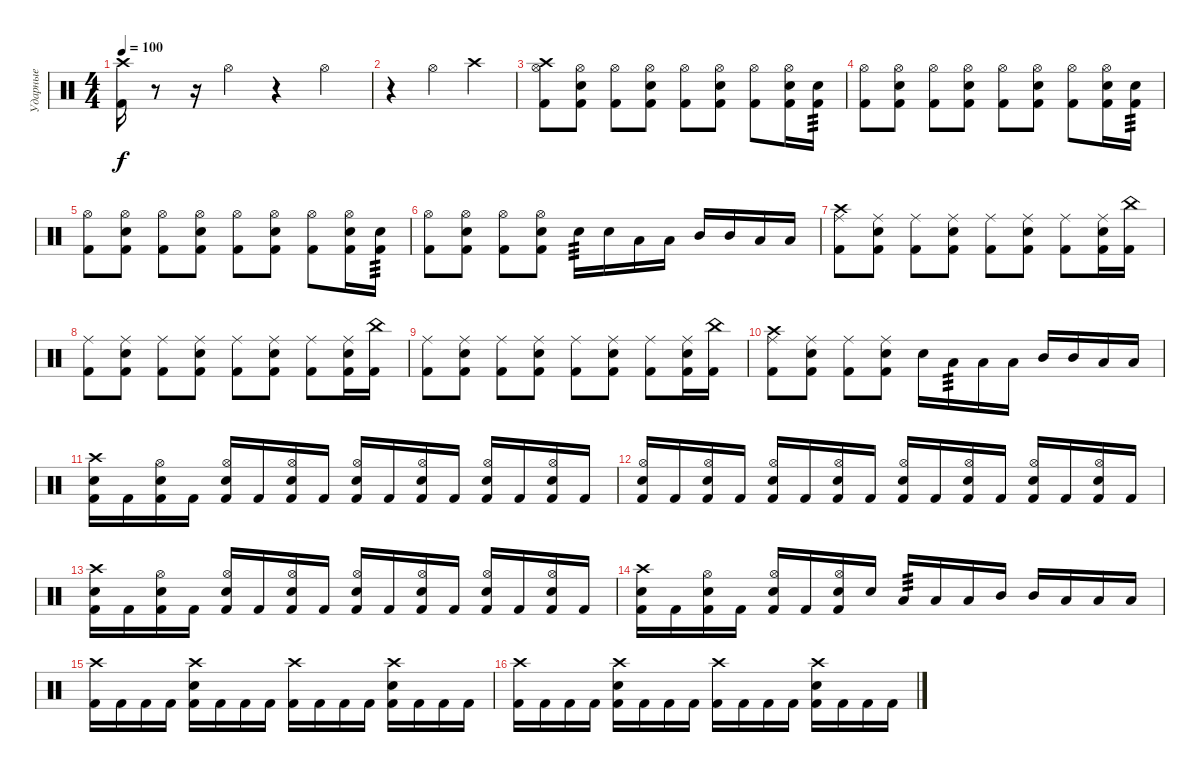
\track ("Ударные" "Ударные") {instrument percussion}
\staff {score}
\articulation defaults
\ts (4 4)
\tempo 100
\clef neutral
\ks c
("Crash high (hit)" "Kick (hit) 2").16{dy f} r.8 r.16 "Hi-Hat (open)".4 r.4 "Hi-Hat (open)".4 |
r.4 "Hi-Hat (open)".4 "Crash high (hit)".4 |
("Hi-Hat (open)" "Crash high (hit)" "Kick (hit) 2").8 ("Hi-Hat (open)" "Snare (hit) 2" "Kick (hit) 2").8 ("Hi-Hat (open)" "Kick (hit) 2").8 ("Hi-Hat (open)" "Snare (hit) 2" "Kick (hit) 2").8 ("Hi-Hat (open)" "Kick (hit) 2").8 ("Hi-Hat (open)" "Snare (hit) 2" "Kick (hit) 2").8 ("Hi-Hat (open)" "Kick (hit) 2").8 ("Hi-Hat (open)" "Snare (hit) 2" "Kick (hit) 2").16 ("Snare (hit) 2" "Kick (hit) 2").16{tp 3} |
("Hi-Hat (open)" "Kick (hit) 2").8 ("Hi-Hat (open)" "Snare (hit) 2" "Kick (hit) 2").8 ("Hi-Hat (open)" "Kick (hit) 2").8 ("Hi-Hat (open)" "Snare (hit) 2" "Kick (hit) 2").8 ("Hi-Hat (open)" "Kick (hit) 2").8 ("Hi-Hat (open)" "Snare (hit) 2" "Kick (hit) 2").8 ("Hi-Hat (open)" "Kick (hit) 2").8 ("Hi-Hat (open)" "Snare (hit) 2" "Kick (hit) 2").16 ("Snare (hit) 2" "Kick (hit) 2").16{tp 3} |
("Hi-Hat (open)" "Kick (hit) 2").8 ("Hi-Hat (open)" "Snare (hit) 2" "Kick (hit) 2").8 ("Hi-Hat (open)" "Kick (hit) 2").8 ("Hi-Hat (open)" "Snare (hit) 2" "Kick (hit) 2").8 ("Hi-Hat (open)" "Kick (hit) 2").8 ("Hi-Hat (open)" "Snare (hit) 2" "Kick (hit) 2").8 ("Hi-Hat (open)" "Kick (hit) 2").8 ("Hi-Hat (open)" "Snare (hit) 2" "Kick (hit) 2").16 ("Snare (hit) 2" "Kick (hit) 2").16{tp 3} |
("Hi-Hat (open)" "Kick (hit) 2").8 ("Hi-Hat (open)" "Snare (hit) 2" "Kick (hit) 2").8 ("Hi-Hat (open)" "Kick (hit) 2").8 ("Hi-Hat (open)" "Snare (hit) 2" "Kick (hit) 2").8 "Snare (hit) 2".16{tp 3} "Snare (hit) 2".16 "Low Tom (hit)".16 "Low Tom (hit)".16 "Mid Tom (hit)".16 "Mid Tom (hit)".16 "Low Floor Tom (hit)".16 "Low Floor Tom (hit)".16 |
("Ride (middle)" "Crash high (hit)" "Kick (hit) 2").8 ("Ride (middle)" "Snare (hit) 2" "Kick (hit) 2").8 ("Ride (middle)" "Kick (hit) 2").8 ("Ride (middle)" "Snare (hit) 2" "Kick (hit) 2").8 ("Ride (middle)" "Kick (hit) 2").8 ("Ride (middle)" "Snare (hit) 2" "Kick (hit) 2").8 ("Ride (middle)" "Kick (hit) 2").8 ("Ride (middle)" "Snare (hit) 2" "Kick (hit) 2").16 ("China (hit)" "Kick (hit) 2").16 |
("Ride (middle)" "Kick (hit) 2").8 ("Ride (middle)" "Snare (hit) 2" "Kick (hit) 2").8 ("Ride (middle)" "Kick (hit) 2").8 ("Ride (middle)" "Snare (hit) 2" "Kick (hit) 2").8 ("Ride (middle)" "Kick (hit) 2").8 ("Ride (middle)" "Snare (hit) 2" "Kick (hit) 2").8 ("Ride (middle)" "Kick (hit) 2").8 ("Ride (middle)" "Snare (hit) 2" "Kick (hit) 2").16 ("China (hit)" "Kick (hit) 2").16 |
("Ride (middle)" "Kick (hit) 2").8 ("Ride (middle)" "Snare (hit) 2" "Kick (hit) 2").8 ("Ride (middle)" "Kick (hit) 2").8 ("Ride (middle)" "Snare (hit) 2" "Kick (hit) 2").8 ("Ride (middle)" "Kick (hit) 2").8 ("Ride (middle)" "Snare (hit) 2" "Kick (hit) 2").8 ("Ride (middle)" "Kick (hit) 2").8 ("Ride (middle)" "Snare (hit) 2" "Kick (hit) 2").16 ("China (hit)" "Kick (hit) 2").16 |
("Ride (middle)" "Crash high (hit)" "Kick (hit) 2").8 ("Ride (middle)" "Snare (hit) 2" "Kick (hit) 2").8 ("Ride (middle)" "Kick (hit) 2").8 ("Ride (middle)" "Snare (hit) 2" "Kick (hit) 2").8 "Snare (hit) 2".16 "Low Tom (hit)".16{tp 3} "Low Tom (hit)".16 "Low Tom (hit)".16 "Mid Tom (hit)".16 "Mid Tom (hit)".16 "Low Floor Tom (hit)".16 "Low Floor Tom (hit)".16 |
("Crash high (hit)" "Snare (hit) 2" "Kick (hit) 2").16 "Kick (hit) 2".16 ("Hi-Hat (open)" "Snare (hit) 2" "Kick (hit) 2").16 "Kick (hit) 2".16 ("Hi-Hat (open)" "Snare (hit) 2" "Kick (hit) 2").16 "Kick (hit) 2".16 ("Hi-Hat (open)" "Snare (hit) 2" "Kick (hit) 2").16 "Kick (hit) 2".16 ("Hi-Hat (open)" "Snare (hit) 2" "Kick (hit) 2").16 "Kick (hit) 2".16 ("Hi-Hat (open)" "Snare (hit) 2" "Kick (hit) 2").16 "Kick (hit) 2".16 ("Hi-Hat (open)" "Snare (hit) 2" "Kick (hit) 2").16 "Kick (hit) 2".16 ("Hi-Hat (open)" "Snare (hit) 2" "Kick (hit) 2").16 "Kick (hit) 2".16 |
("Hi-Hat (open)" "Snare (hit) 2" "Kick (hit) 2").16 "Kick (hit) 2".16 ("Hi-Hat (open)" "Snare (hit) 2" "Kick (hit) 2").16 "Kick (hit) 2".16 ("Hi-Hat (open)" "Snare (hit) 2" "Kick (hit) 2").16 "Kick (hit) 2".16 ("Hi-Hat (open)" "Snare (hit) 2" "Kick (hit) 2").16 "Kick (hit) 2".16 ("Hi-Hat (open)" "Snare (hit) 2" "Kick (hit) 2").16 "Kick (hit) 2".16 ("Hi-Hat (open)" "Snare (hit) 2" "Kick (hit) 2").16 "Kick (hit) 2".16 ("Hi-Hat (open)" "Snare (hit) 2" "Kick (hit) 2").16 "Kick (hit) 2".16 ("Hi-Hat (open)" "Snare (hit) 2" "Kick (hit) 2").16 "Kick (hit) 2".16 |
("Crash high (hit)" "Snare (hit) 2" "Kick (hit) 2").16 "Kick (hit) 2".16 ("Hi-Hat (open)" "Snare (hit) 2" "Kick (hit) 2").16 "Kick (hit) 2".16 ("Hi-Hat (open)" "Snare (hit) 2" "Kick (hit) 2").16 "Kick (hit) 2".16 ("Hi-Hat (open)" "Snare (hit) 2" "Kick (hit) 2").16 "Kick (hit) 2".16 ("Hi-Hat (open)" "Snare (hit) 2" "Kick (hit) 2").16 "Kick (hit) 2".16 ("Hi-Hat (open)" "Snare (hit) 2" "Kick (hit) 2").16 "Kick (hit) 2".16 ("Hi-Hat (open)" "Snare (hit) 2" "Kick (hit) 2").16 "Kick (hit) 2".16 ("Hi-Hat (open)" "Snare (hit) 2" "Kick (hit) 2").16 "Kick (hit) 2".16 |
("Crash high (hit)" "Snare (hit) 2" "Kick (hit) 2").16 "Kick (hit) 2".16 ("Hi-Hat (open)" "Snare (hit) 2" "Kick (hit) 2").16 "Kick (hit) 2".16 ("Hi-Hat (open)" "Snare (hit) 2" "Kick (hit) 2").16 "Kick (hit) 2".16 ("Hi-Hat (open)" "Snare (hit) 2" "Kick (hit) 2").16 "Snare (hit) 2".16 "Low Tom (hit)".16{tp 3} "Low Tom (hit)".16 "Low Tom (hit)".16 "Mid Tom (hit)".16 "Mid Tom (hit)".16 "Low Floor Tom (hit)".16 "Low Floor Tom (hit)".16 "Low Floor Tom (hit)".16 |
("Crash high (hit)" "Kick (hit) 2").16 "Kick (hit) 2".16 "Kick (hit) 2".16 "Kick (hit) 2".16 ("Crash high (hit)" "Snare (hit) 2" "Kick (hit) 2").16 "Kick (hit) 2".16 "Kick (hit) 2".16 "Kick (hit) 2".16 ("Crash high (hit)" "Kick (hit) 2").16 "Kick (hit) 2".16 "Kick (hit) 2".16 "Kick (hit) 2".16 ("Crash high (hit)" "Snare (hit) 2" "Kick (hit) 2").16 "Kick (hit) 2".16 "Kick (hit) 2".16 "Kick (hit) 2".16 |
("Crash high (hit)" "Kick (hit) 2").16 "Kick (hit) 2".16 "Kick (hit) 2".16 "Kick (hit) 2".16 ("Crash high (hit)" "Snare (hit) 2" "Kick (hit) 2").16 "Kick (hit) 2".16 "Kick (hit) 2".16 "Kick (hit) 2".16 ("Crash high (hit)" "Kick (hit) 2").16 "Kick (hit) 2".16 "Kick (hit) 2".16 "Kick (hit) 2".16 ("Crash high (hit)" "Snare (hit) 2" "Kick (hit) 2").16 "Kick (hit) 2".16 "Kick (hit) 2".16 "Kick (hit) 2".16
